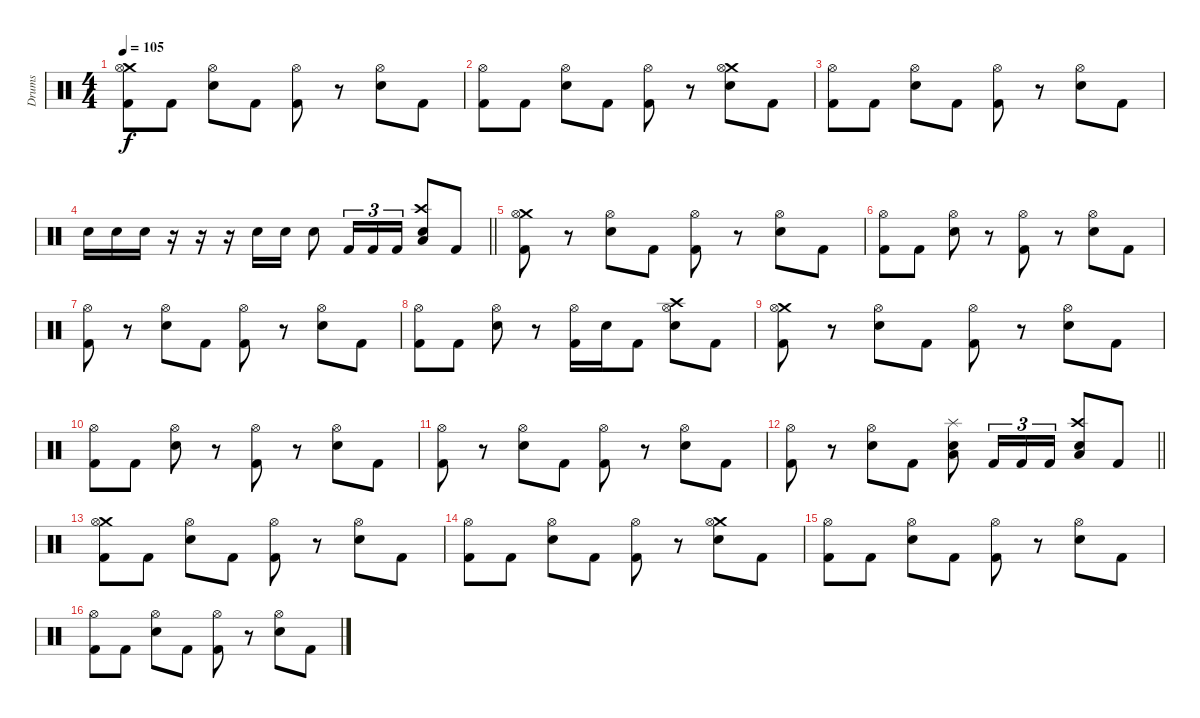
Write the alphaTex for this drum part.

\track ("Drums" "Drums") {instrument percussion}
\staff {score}
\articulation defaults
\ts (4 4)
\section ("" "")
\tempo 105
\clef neutral
\ks c
("Crash medium (hit)" "Hi-Hat (open)" "Kick (hit) 2").8{dy f} "Kick (hit) 2".8 ("Hi-Hat (open)" "Electric Snare (hit)").8 "Kick (hit) 2".8 ("Hi-Hat (open)" "Kick (hit) 2").8 r.8 ("Hi-Hat (open)" "Electric Snare (hit)").8 "Kick (hit) 2".8 |
("Hi-Hat (open)" "Kick (hit) 2").8 "Kick (hit) 2".8 ("Hi-Hat (open)" "Electric Snare (hit)").8 "Kick (hit) 2".8 ("Hi-Hat (open)" "Kick (hit) 2").8 r.8 ("Crash medium (hit)" "Hi-Hat (open)" "Electric Snare (hit)").8 "Kick (hit) 2".8 |
("Hi-Hat (open)" "Kick (hit) 2").8 "Kick (hit) 2".8 ("Hi-Hat (open)" "Electric Snare (hit)").8 "Kick (hit) 2".8 ("Hi-Hat (open)" "Kick (hit) 2").8 r.8 ("Hi-Hat (open)" "Electric Snare (hit)").8 "Kick (hit) 2".8 |
\barLineRight lightlight "Electric Snare (hit)".16 "Electric Snare (hit)".16 "Electric Snare (hit)".16
r.16 r.16 r.16 "Electric Snare (hit)".16 "Electric Snare (hit)".16 "Electric Snare (hit)".8 "Kick (hit) 2".16{tu (3 2)} "Kick (hit) 2".16{tu (3 2)} "Kick (hit) 2".16{tu (3 2)} ("Crash high (hit)" "Low Tom (hit)" "Electric Snare (hit)").8 "Kick (hit) 2".8 |
\section ("" "")
("Crash medium (hit)" "Hi-Hat (open)" "Kick (hit) 2").8 r.8 ("Hi-Hat (open)" "Electric Snare (hit)").8 "Kick (hit) 2".8 ("Hi-Hat (open)" "Kick (hit) 2").8 r.8 ("Hi-Hat (open)" "Electric Snare (hit)").8 "Kick (hit) 2".8 |
("Hi-Hat (open)" "Kick (hit) 2").8 "Kick (hit) 2".8 ("Hi-Hat (open)" "Electric Snare (hit)").8 r.8 ("Hi-Hat (open)" "Kick (hit) 2").8 r.8 ("Hi-Hat (open)" "Electric Snare (hit)").8 "Kick (hit) 2".8 |
("Hi-Hat (open)" "Kick (hit) 2").8 r.8 ("Hi-Hat (open)" "Electric Snare (hit)").8 "Kick (hit) 2".8 ("Hi-Hat (open)" "Kick (hit) 2").8 r.8 ("Hi-Hat (open)" "Electric Snare (hit)").8 "Kick (hit) 2".8 |
("Hi-Hat (open)" "Kick (hit) 2").8 "Kick (hit) 2".8 ("Hi-Hat (open)" "Electric Snare (hit)").8 r.8 ("Hi-Hat (open)" "Kick (hit) 2").16 "Electric Snare (hit)".16 "Kick (hit) 2".8 ("Crash high (hit)" "Hi-Hat (open)" "Electric Snare (hit)").8 "Kick (hit) 2".8 |
("Crash medium (hit)" "Hi-Hat (open)" "Kick (hit) 2").8 r.8 ("Hi-Hat (open)" "Electric Snare (hit)").8 "Kick (hit) 2".8 ("Hi-Hat (open)" "Kick (hit) 2").8 r.8 ("Hi-Hat (open)" "Electric Snare (hit)").8 "Kick (hit) 2".8 |
("Hi-Hat (open)" "Kick (hit) 2").8 "Kick (hit) 2".8 ("Hi-Hat (open)" "Electric Snare (hit)").8 r.8 ("Hi-Hat (open)" "Kick (hit) 2").8 r.8 ("Hi-Hat (open)" "Electric Snare (hit)").8 "Kick (hit) 2".8 |
("Hi-Hat (open)" "Kick (hit) 2").8 r.8 ("Hi-Hat (open)" "Electric Snare (hit)").8 "Kick (hit) 2".8 ("Hi-Hat (open)" "Kick (hit) 2").8 r.8 ("Hi-Hat (open)" "Electric Snare (hit)").8 "Kick (hit) 2".8 |
\barLineRight lightlight
("Hi-Hat (open)" "Kick (hit) 2").8 r.8 ("Hi-Hat (open)" "Electric Snare (hit)").8 "Kick (hit) 2".8 ("Splash (hit)" "Electric Snare (hit)" "Low Floor Tom (hit)").8 "Kick (hit) 2".16{tu (3 2)} "Kick (hit) 2".16{tu (3 2)} "Kick (hit) 2".16{tu (3 2)} ("Crash high (hit)" "Low Tom (hit)" "Electric Snare (hit)").8 "Kick (hit) 2".8 |
\section ("" "")
("Crash medium (hit)" "Hi-Hat (open)" "Kick (hit) 2").8 "Kick (hit) 2".8 ("Hi-Hat (open)" "Electric Snare (hit)").8 "Kick (hit) 2".8 ("Hi-Hat (open)" "Kick (hit) 2").8 r.8 ("Hi-Hat (open)" "Electric Snare (hit)").8 "Kick (hit) 2".8 |
("Hi-Hat (open)" "Kick (hit) 2").8 "Kick (hit) 2".8 ("Hi-Hat (open)" "Electric Snare (hit)").8 "Kick (hit) 2".8 ("Hi-Hat (open)" "Kick (hit) 2").8 r.8 ("Crash medium (hit)" "Hi-Hat (open)" "Electric Snare (hit)").8 "Kick (hit) 2".8 |
("Hi-Hat (open)" "Kick (hit) 2").8 "Kick (hit) 2".8 ("Hi-Hat (open)" "Electric Snare (hit)").8 "Kick (hit) 2".8 ("Hi-Hat (open)" "Kick (hit) 2").8 r.8 ("Hi-Hat (open)" "Electric Snare (hit)").8 "Kick (hit) 2".8 |
("Hi-Hat (open)" "Kick (hit) 2").8 "Kick (hit) 2".8 ("Hi-Hat (open)" "Electric Snare (hit)").8 "Kick (hit) 2".8 ("Hi-Hat (open)" "Kick (hit) 2").8 r.8 ("Hi-Hat (open)" "Electric Snare (hit)").8 "Kick (hit) 2".8
